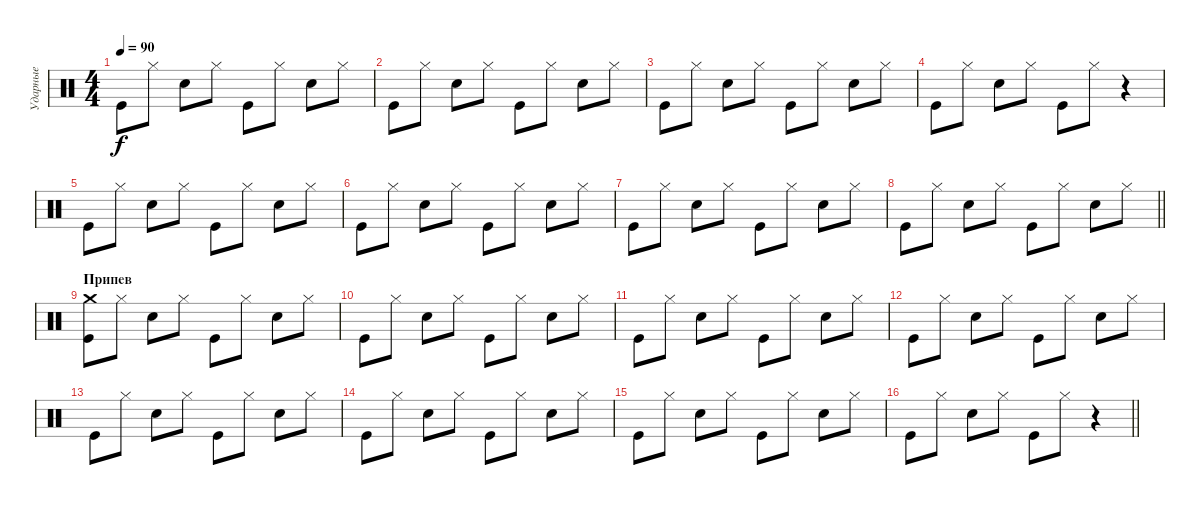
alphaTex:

\track ("Ударные" "Ударные") {instrument percussion}
\staff {score}
\articulation defaults
\ts (4 4)
\tempo 90
\clef neutral
\ks c "Kick (hit)".8{dy f} "Hi-Hat (closed)".8 "Electric Snare (hit)".8 "Hi-Hat (closed)".8 "Kick (hit)".8 "Hi-Hat (closed)".8 "Electric Snare (hit)".8 "Hi-Hat (closed)".8
|
"Kick (hit)".8 "Hi-Hat (closed)".8 "Electric Snare (hit)".8 "Hi-Hat (closed)".8 "Kick (hit)".8 "Hi-Hat (closed)".8 "Electric Snare (hit)".8 "Hi-Hat (closed)".8 |
"Kick (hit)".8 "Hi-Hat (closed)".8 "Electric Snare (hit)".8 "Hi-Hat (closed)".8 "Kick (hit)".8 "Hi-Hat (closed)".8 "Electric Snare (hit)".8 "Hi-Hat (closed)".8 |
"Kick (hit)".8 "Hi-Hat (closed)".8 "Electric Snare (hit)".8 "Hi-Hat (closed)".8 "Kick (hit)".8 "Hi-Hat (closed)".8 r.4 |
"Kick (hit)".8 "Hi-Hat (closed)".8 "Electric Snare (hit)".8 "Hi-Hat (closed)".8 "Kick (hit)".8 "Hi-Hat (closed)".8 "Electric Snare (hit)".8 "Hi-Hat (closed)".8 |
"Kick (hit)".8 "Hi-Hat (closed)".8 "Electric Snare (hit)".8 "Hi-Hat (closed)".8 "Kick (hit)".8 "Hi-Hat (closed)".8 "Electric Snare (hit)".8 "Hi-Hat (closed)".8 |
"Kick (hit)".8 "Hi-Hat (closed)".8 "Electric Snare (hit)".8 "Hi-Hat (closed)".8 "Kick (hit)".8 "Hi-Hat (closed)".8 "Electric Snare (hit)".8 "Hi-Hat (closed)".8 |
\barLineRight lightlight "Kick (hit)".8 "Hi-Hat (closed)".8 "Electric Snare (hit)".8 "Hi-Hat (closed)".8 "Kick (hit)".8 "Hi-Hat (closed)".8 "Electric Snare (hit)".8 "Hi-Hat (closed)".8
|
\section ("" "Припев")
("Crash medium (hit)" "Kick (hit)").8 "Hi-Hat (closed)".8 "Electric Snare (hit)".8 "Hi-Hat (closed)".8 "Kick (hit)".8 "Hi-Hat (closed)".8 "Electric Snare (hit)".8 "Hi-Hat (closed)".8 |
"Kick (hit)".8 "Hi-Hat (closed)".8 "Electric Snare (hit)".8 "Hi-Hat (closed)".8 "Kick (hit)".8 "Hi-Hat (closed)".8 "Electric Snare (hit)".8 "Hi-Hat (closed)".8 |
"Kick (hit)".8 "Hi-Hat (closed)".8 "Electric Snare (hit)".8 "Hi-Hat (closed)".8 "Kick (hit)".8 "Hi-Hat (closed)".8 "Electric Snare (hit)".8 "Hi-Hat (closed)".8 |
"Kick (hit)".8 "Hi-Hat (closed)".8 "Electric Snare (hit)".8 "Hi-Hat (closed)".8 "Kick (hit)".8 "Hi-Hat (closed)".8 "Electric Snare (hit)".8 "Hi-Hat (closed)".8 |
"Kick (hit)".8 "Hi-Hat (closed)".8 "Electric Snare (hit)".8 "Hi-Hat (closed)".8 "Kick (hit)".8 "Hi-Hat (closed)".8 "Electric Snare (hit)".8 "Hi-Hat (closed)".8 |
"Kick (hit)".8 "Hi-Hat (closed)".8 "Electric Snare (hit)".8 "Hi-Hat (closed)".8 "Kick (hit)".8 "Hi-Hat (closed)".8 "Electric Snare (hit)".8 "Hi-Hat (closed)".8 |
"Kick (hit)".8 "Hi-Hat (closed)".8 "Electric Snare (hit)".8 "Hi-Hat (closed)".8 "Kick (hit)".8 "Hi-Hat (closed)".8 "Electric Snare (hit)".8 "Hi-Hat (closed)".8 |
\barLineRight lightlight "Kick (hit)".8 "Hi-Hat (closed)".8 "Electric Snare (hit)".8 "Hi-Hat (closed)".8 "Kick (hit)".8 "Hi-Hat (closed)".8
r.4
